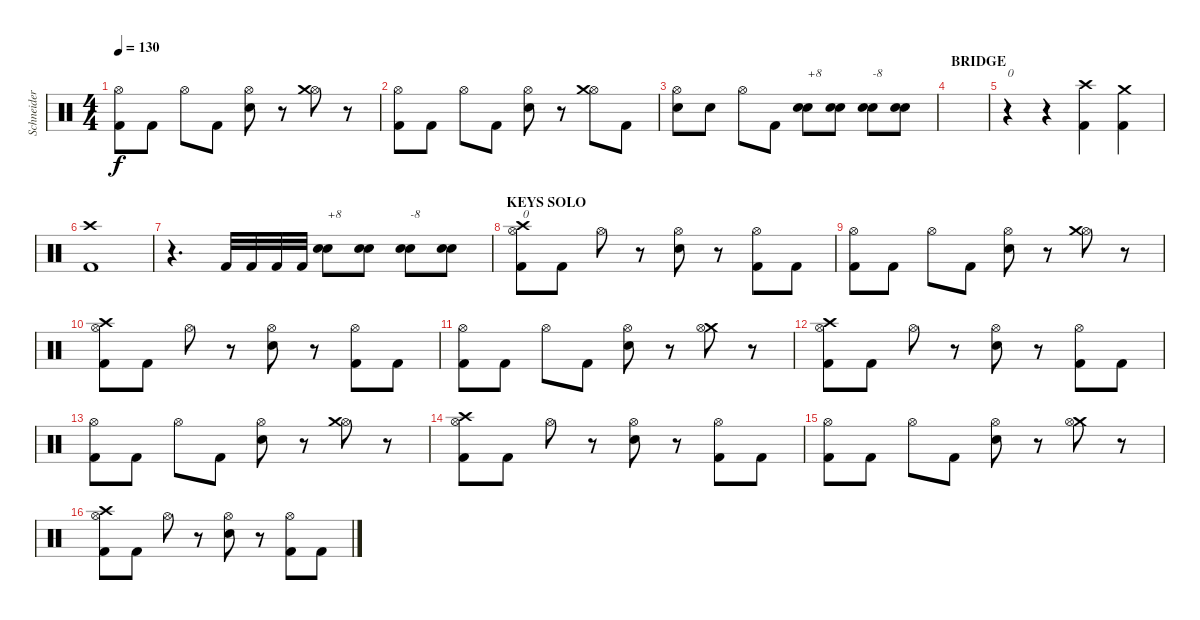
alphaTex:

\track ("Schneider - Drums" "Schneider ") {instrument percussion}
\staff {score}
\articulation defaults
\ts (4 4)
\tempo 130
\clef neutral
\ks c
("Kick (hit) 2" "Hi-Hat (open)").8{dy f} "Kick (hit) 2".8 "Hi-Hat (open)".8 "Kick (hit) 2".8 ("Electric Snare (hit)" "Hi-Hat (open)").8 r.8 ("Hi-Hat (open)" "Crash medium (hit)").8 r.8 |
("Kick (hit) 2" "Hi-Hat (open)").8 "Kick (hit) 2".8 "Hi-Hat (open)".8 "Kick (hit) 2".8 ("Electric Snare (hit)" "Hi-Hat (open)").8 r.8 ("Hi-Hat (open)" "Crash medium (hit)").8 "Kick (hit) 2".8 |
("Electric Snare (hit)" "Hi-Hat (open)").8 "Electric Snare (hit)".8 "Hi-Hat (open)".8 "Kick (hit) 2".8 ("Electric Snare (hit)" "Electric Snare (hit)").8{txt "+8" balance 16} ("Electric Snare (hit)" "Electric Snare (hit)").8 ("Electric Snare (hit)" "Electric Snare (hit)").8{txt "-8" balance 0} ("Electric Snare (hit)" "Electric Snare (hit)").8 |
\section ("" "BRIDGE")
|
r.4{txt "0" balance 8} r.4 ("Crash high (hit)" "Kick (hit) 2").4 ("Crash medium (hit)" "Kick (hit) 2").4 |
("Crash high (hit)" "Kick (hit) 2").1 |
r.4{d} "Kick (hit) 2".32 "Kick (hit) 2".32 "Kick (hit) 2".32 "Kick (hit) 2".32 ("Electric Snare (hit)" "Electric Snare (hit)").8{txt "+8" balance 16} ("Electric Snare (hit)" "Electric Snare (hit)").8 ("Electric Snare (hit)" "Electric Snare (hit)").8{txt "-8" balance 0} ("Electric Snare (hit)" "Electric Snare (hit)").8 |
\section ("" "KEYS SOLO")
("Kick (hit) 2" "Hi-Hat (open)" "Crash high (hit)").8{txt "0" balance 8} "Kick (hit) 2".8 "Hi-Hat (open)".8 r.8 ("Electric Snare (hit)" "Hi-Hat (open)").8 r.8 ("Kick (hit) 2" "Hi-Hat (open)").8 "Kick (hit) 2".8 |
("Kick (hit) 2" "Hi-Hat (open)").8 "Kick (hit) 2".8 "Hi-Hat (open)".8 "Kick (hit) 2".8 ("Electric Snare (hit)" "Hi-Hat (open)").8 r.8 ("Hi-Hat (open)" "Crash medium (hit)").8 r.8 |
("Kick (hit) 2" "Hi-Hat (open)" "Crash high (hit)").8 "Kick (hit) 2".8 "Hi-Hat (open)".8 r.8 ("Electric Snare (hit)" "Hi-Hat (open)").8 r.8 ("Kick (hit) 2" "Hi-Hat (open)").8 "Kick (hit) 2".8 |
("Kick (hit) 2" "Hi-Hat (open)").8 "Kick (hit) 2".8 "Hi-Hat (open)".8 "Kick (hit) 2".8 ("Electric Snare (hit)" "Hi-Hat (open)").8 r.8 ("Crash medium (hit)" "Hi-Hat (open)").8 r.8 |
("Kick (hit) 2" "Hi-Hat (open)" "Crash high (hit)").8 "Kick (hit) 2".8 "Hi-Hat (open)".8 r.8 ("Electric Snare (hit)" "Hi-Hat (open)").8 r.8 ("Kick (hit) 2" "Hi-Hat (open)").8 "Kick (hit) 2".8 |
("Kick (hit) 2" "Hi-Hat (open)").8 "Kick (hit) 2".8 "Hi-Hat (open)".8 "Kick (hit) 2".8 ("Electric Snare (hit)" "Hi-Hat (open)").8 r.8 ("Hi-Hat (open)" "Crash medium (hit)").8 r.8 |
("Kick (hit) 2" "Hi-Hat (open)" "Crash high (hit)").8 "Kick (hit) 2".8 "Hi-Hat (open)".8 r.8 ("Electric Snare (hit)" "Hi-Hat (open)").8 r.8 ("Kick (hit) 2" "Hi-Hat (open)").8 "Kick (hit) 2".8 |
("Kick (hit) 2" "Hi-Hat (open)").8 "Kick (hit) 2".8 "Hi-Hat (open)".8 "Kick (hit) 2".8 ("Electric Snare (hit)" "Hi-Hat (open)").8 r.8 ("Crash medium (hit)" "Hi-Hat (open)").8 r.8 |
("Kick (hit) 2" "Hi-Hat (open)" "Crash high (hit)").8 "Kick (hit) 2".8 "Hi-Hat (open)".8 r.8 ("Electric Snare (hit)" "Hi-Hat (open)").8 r.8 ("Kick (hit) 2" "Hi-Hat (open)").8 "Kick (hit) 2".8
